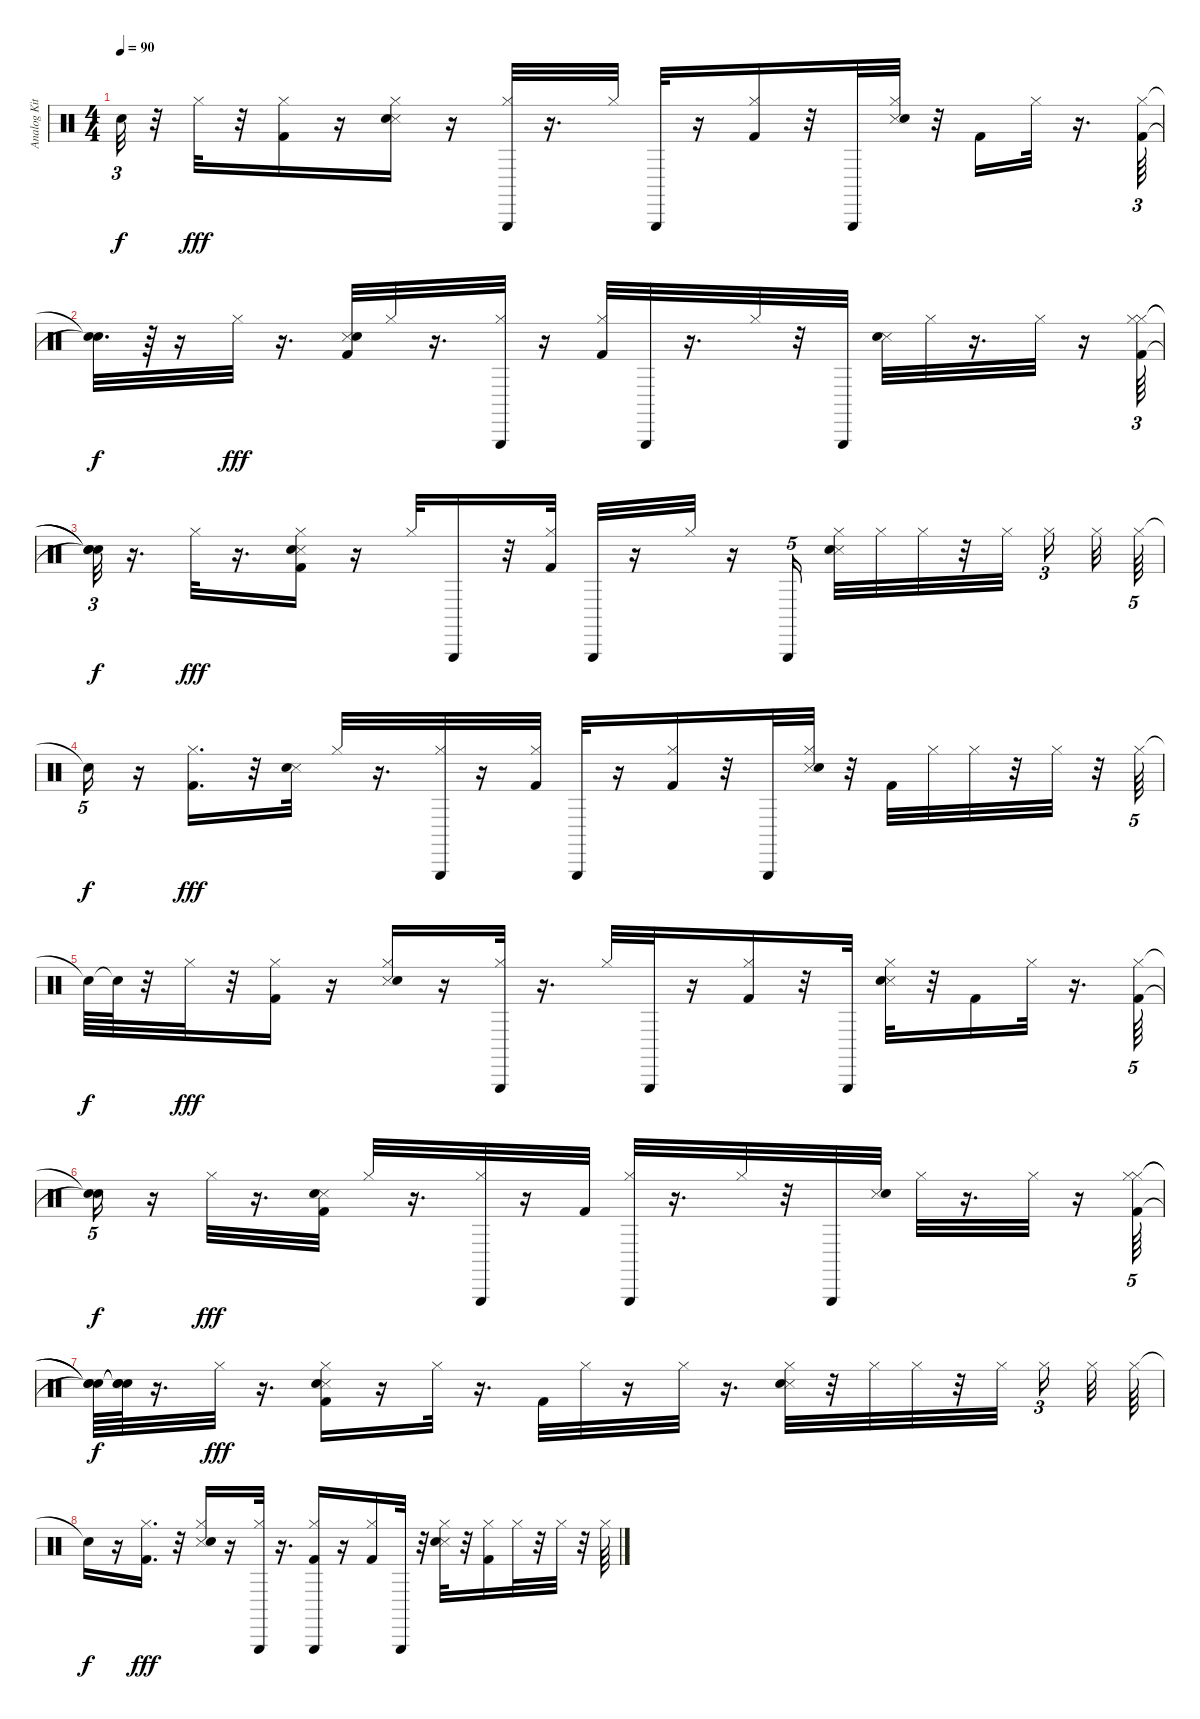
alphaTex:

\track ("Analog Kit" "Analog Kit") {instrument percussion}
\staff {score}
\articulation defaults
\ts (4 4)
\tempo 90
\clef neutral
\ks c "Snare (hit)"{t}.32{tu (3 2) dy f}
r.32 "Hi-Hat (closed)".32{dy fff} r.32 ("Hi-Hat (closed)" "Kick (hit) 2").16 r.16 ("Snare (side stick) 3" "Electric Snare (hit)" "Hi-Hat (closed)").16 r.16 ("Hi-Hat (closed)" "Triangle (hit)").32 r.16{d} "Hi-Hat (closed)".32 "Triangle (hit)".32 r.16 ("Kick (hit) 2" "Hi-Hat (closed)").16 r.32 "Triangle (hit)".32 ("Snare (side stick) 3" "Electric Snare (hit)" "Hi-Hat (closed)").32 r.32 "Kick (hit) 2".16 "Hi-Hat (closed)".32 r.16{d} ("Hi-Hat (closed)" "Kick (hit) 2").64{tu (3 2)} |
("Snare (hit)"{t} "Snare (hit)"{t}).32{d dy f} r.64 r.16 "Hi-Hat (closed)".32{dy fff} r.16{d} ("Snare (side stick) 3" "Kick (hit) 2" "Electric Snare (hit)").32 "Hi-Hat (closed)".32 r.16{d} ("Triangle (hit)" "Hi-Hat (closed)").32 r.16 ("Kick (hit) 2" "Hi-Hat (closed)").32 "Triangle (hit)".32 r.16{d} "Hi-Hat (closed)".32 r.32 "Triangle (hit)".32 ("Snare (side stick) 3" "Electric Snare (hit)").32 "Hi-Hat (closed)".32 r.16{d} "Hi-Hat (closed)".32 r.16 ("Hi-Hat (closed)" "Hi-Hat (closed)" "Kick (hit) 2").64{tu (3 2)} |
("Snare (hit)"{t} "Snare (hit)"{t} "Snare (hit)"{t}).32{tu (3 2) dy f} r.16{d} "Hi-Hat (closed)".32{dy fff} r.16{d} ("Hi-Hat (closed)" "Snare (side stick) 3" "Kick (hit) 2" "Electric Snare (hit)").16 r.16 "Hi-Hat (closed)".32 "Triangle (hit)".16 r.32 ("Kick (hit) 2" "Hi-Hat (closed)").32 "Triangle (hit)".32 r.16 "Hi-Hat (closed)".32 r.16 "Triangle (hit)".16{tu (5 4)} ("Hi-Hat (closed)" "Snare (side stick) 3" "Electric Snare (hit)").32 "Hi-Hat (closed)".32 "Hi-Hat (closed)".32 r.32 "Hi-Hat (closed)".32{beam splitsecondary} "Hi-Hat (closed)".16{tu (3 2) beam splitsecondary} "Hi-Hat (closed)".32 "Hi-Hat (closed)".64{tu (5 4)} |
"Snare (hit)"{t}.16{tu (5 4) dy f} r.16 ("Kick (hit) 2" "Hi-Hat (closed)").16{d dy fff} r.32 ("Snare (side stick) 3" "Electric Snare (hit)").32 "Hi-Hat (closed)".32 r.16{d} ("Hi-Hat (closed)" "Triangle (hit)").32 r.16 ("Hi-Hat (closed)" "Kick (hit) 2").32 "Triangle (hit)".32 r.16 ("Kick (hit) 2" "Hi-Hat (closed)").16 r.32 "Triangle (hit)".32 ("Snare (side stick) 3" "Electric Snare (hit)" "Hi-Hat (closed)").32 r.32 "Kick (hit) 2".32 "Hi-Hat (closed)".32 "Hi-Hat (closed)".32 r.32 "Hi-Hat (closed)".32 r.32 "Hi-Hat (closed)".64{tu (5 4)} |
"Snare (hit)"{t}.64{dy f} "Snare (hit)"{t}.64 r.32 "Hi-Hat (closed)".32{dy fff} r.32 ("Hi-Hat (closed)" "Kick (hit) 2").16 r.16 ("Snare (side stick) 3" "Electric Snare (hit)" "Hi-Hat (closed)").16 r.16 ("Hi-Hat (closed)" "Triangle (hit)").32 r.16{d} "Hi-Hat (closed)".32 "Triangle (hit)".32 r.16 ("Kick (hit) 2" "Hi-Hat (closed)").16 r.32 "Triangle (hit)".32 ("Snare (side stick) 3" "Electric Snare (hit)" "Hi-Hat (closed)").32 r.32 "Kick (hit) 2".16 "Hi-Hat (closed)".32 r.16{d} ("Hi-Hat (closed)" "Kick (hit) 2").64{tu (5 4)} |
("Snare (hit)"{t} "Snare (hit)"{t}).16{tu (5 4) dy f} r.16 "Hi-Hat (closed)".32{dy fff} r.16{d} ("Snare (side stick) 3" "Kick (hit) 2" "Electric Snare (hit)").32 "Hi-Hat (closed)".32 r.16{d} ("Triangle (hit)" "Hi-Hat (closed)").32 r.16 "Kick (hit) 2".32 ("Hi-Hat (closed)" "Triangle (hit)").32 r.16{d} "Hi-Hat (closed)".32 r.32 "Triangle (hit)".32 ("Snare (side stick) 3" "Electric Snare (hit)").32 "Hi-Hat (closed)".32 r.16{d} "Hi-Hat (closed)".32 r.16 ("Hi-Hat (closed)" "Hi-Hat (closed)" "Kick (hit) 2").64{tu (5 4)} |
("Snare (hit)"{t} "Snare (hit)"{t} "Snare (hit)"{t}).64{dy f} ("Snare (hit)"{t} "Snare (hit)"{t} "Snare (hit)"{t}).64 r.16{d} "Hi-Hat (closed)".32{dy fff} r.16{d} ("Hi-Hat (closed)" "Snare (side stick) 3" "Kick (hit) 2" "Electric Snare (hit)").16 r.16 "Hi-Hat (closed)".32 r.16{d} "Kick (hit) 2".32 "Hi-Hat (closed)".32 r.16 "Hi-Hat (closed)".32 r.16{d} ("Hi-Hat (closed)" "Snare (side stick) 3" "Electric Snare (hit)").32 r.32 "Hi-Hat (closed)".32 "Hi-Hat (closed)".32 r.32 "Hi-Hat (closed)".32{beam splitsecondary} "Hi-Hat (closed)".16{tu (3 2)} "Hi-Hat (closed)".32 "Hi-Hat (closed)".64 |
"Snare (hit)"{t}.16{dy f} r.16 ("Kick (hit) 2" "Hi-Hat (closed)").16{d dy fff} r.32 ("Snare (side stick) 3" "Electric Snare (hit)" "Hi-Hat (closed)").16 r.16 ("Hi-Hat (closed)" "Triangle (hit)").32 r.16{d} ("Hi-Hat (closed)" "Kick (hit) 2" "Triangle (hit)").16 r.16 ("Kick (hit) 2" "Hi-Hat (closed)").16 "Triangle (hit)".32 r.32 ("Snare (side stick) 3" "Electric Snare (hit)" "Hi-Hat (closed)").32 r.32 ("Kick (hit) 2" "Hi-Hat (closed)").16 "Hi-Hat (closed)".32 r.32 "Hi-Hat (closed)".32 r.32 "Hi-Hat (closed)".64
